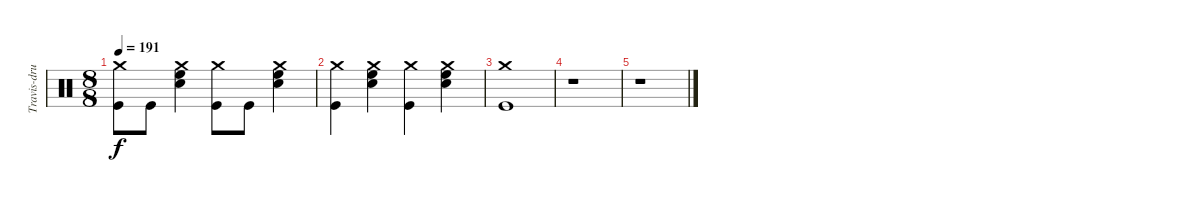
\track ("Travis-drums" "Travis-dru") {instrument percussion}
\staff {score}
\articulation defaults
\ts (8 8)
\tempo 191
\clef neutral
\ks c
("Crash medium (hit)" "Kick (hit)").8{dy f} "Kick (hit)".8 ("Crash medium (hit)" "High Floor Tom (hit)" "Electric Snare (hit)").4 ("Crash medium (hit)" "Kick (hit)").8 "Kick (hit)".8 ("Crash medium (hit)" "High Floor Tom (hit)" "Electric Snare (hit)").4 |
("Crash medium (hit)" "Kick (hit)").4 ("Crash medium (hit)" "High Floor Tom (hit)" "Electric Snare (hit)").4 ("Crash medium (hit)" "Kick (hit)").4 ("Crash medium (hit)" "High Floor Tom (hit)" "Electric Snare (hit)").4 |
("Kick (hit)" "Crash medium (hit)").1 |
r.1 |
r.1
